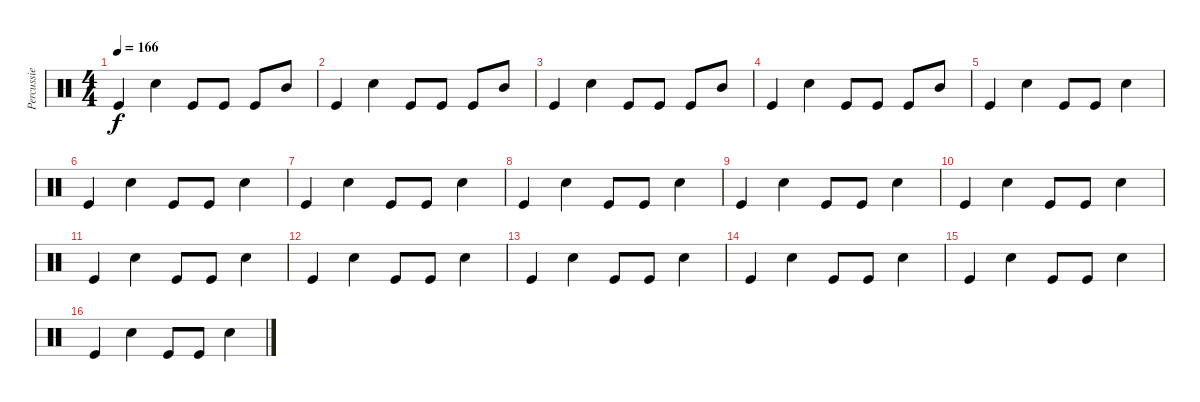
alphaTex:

\track ("Percussie" "Percussie") {instrument percussion}
\staff {score}
\articulation defaults
\ts (4 4)
\tempo 166
\clef neutral
\ks c "Kick (hit)".4{dy f} "Electric Snare (hit)".4 "Kick (hit)".8 "Kick (hit)".8 "Kick (hit)".8 "Mid Tom (hit)".8
|
"Kick (hit)".4 "Electric Snare (hit)".4 "Kick (hit)".8 "Kick (hit)".8 "Kick (hit)".8 "Mid Tom (hit)".8 |
"Kick (hit)".4 "Electric Snare (hit)".4 "Kick (hit)".8 "Kick (hit)".8 "Kick (hit)".8 "Mid Tom (hit)".8 |
"Kick (hit)".4 "Electric Snare (hit)".4 "Kick (hit)".8 "Kick (hit)".8 "Kick (hit)".8 "Mid Tom (hit)".8 |
"Kick (hit)".4 "Electric Snare (hit)".4 "Kick (hit)".8 "Kick (hit)".8 "Electric Snare (hit)".4 |
"Kick (hit)".4 "Electric Snare (hit)".4 "Kick (hit)".8 "Kick (hit)".8 "Electric Snare (hit)".4 |
"Kick (hit)".4 "Electric Snare (hit)".4 "Kick (hit)".8 "Kick (hit)".8 "Electric Snare (hit)".4 |
"Kick (hit)".4 "Electric Snare (hit)".4 "Kick (hit)".8 "Kick (hit)".8 "Electric Snare (hit)".4 |
"Kick (hit)".4 "Electric Snare (hit)".4 "Kick (hit)".8 "Kick (hit)".8 "Electric Snare (hit)".4 |
"Kick (hit)".4 "Electric Snare (hit)".4 "Kick (hit)".8 "Kick (hit)".8 "Electric Snare (hit)".4 |
"Kick (hit)".4 "Electric Snare (hit)".4 "Kick (hit)".8 "Kick (hit)".8 "Electric Snare (hit)".4 |
"Kick (hit)".4 "Electric Snare (hit)".4 "Kick (hit)".8 "Kick (hit)".8 "Electric Snare (hit)".4 |
"Kick (hit)".4 "Electric Snare (hit)".4 "Kick (hit)".8 "Kick (hit)".8 "Electric Snare (hit)".4 |
"Kick (hit)".4 "Electric Snare (hit)".4 "Kick (hit)".8 "Kick (hit)".8 "Electric Snare (hit)".4 |
"Kick (hit)".4 "Electric Snare (hit)".4 "Kick (hit)".8 "Kick (hit)".8 "Electric Snare (hit)".4 |
"Kick (hit)".4 "Electric Snare (hit)".4 "Kick (hit)".8 "Kick (hit)".8 "Electric Snare (hit)".4
